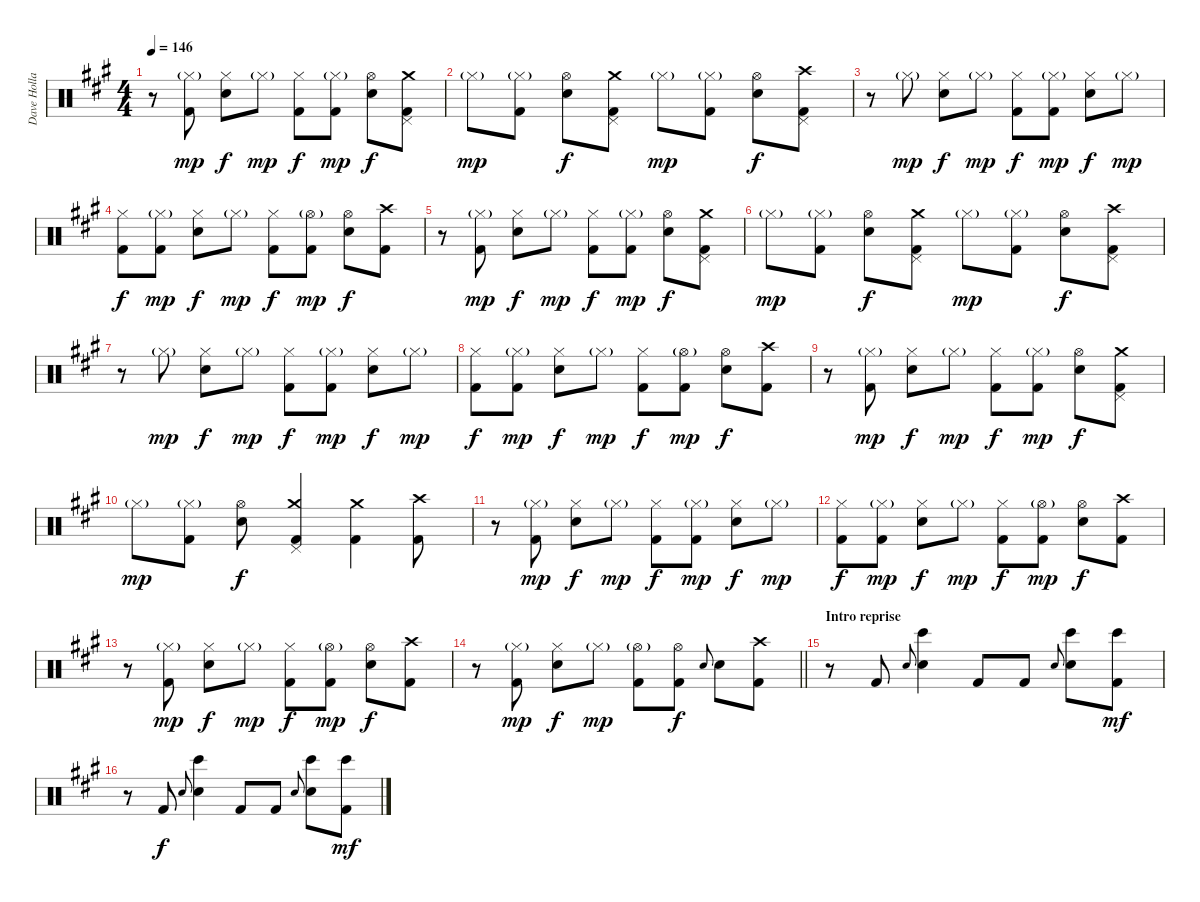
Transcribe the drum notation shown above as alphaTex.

\track ("Dave Holland" "Dave Holla") {instrument percussion}
\staff {score}
\articulation defaults
\ts (4 4)
\tempo 146
\clef neutral
\ks a
r.8{dy f} ("Hi-Hat (closed)"{g} "Kick (hit) 2").8{dy mp} ("Hi-Hat (closed)" "Electric Snare (hit)").8{dy f} "Hi-Hat (closed)"{g}.8{dy mp} ("Hi-Hat (closed)" "Kick (hit) 2").8{dy f} ("Hi-Hat (closed)"{g} "Kick (hit) 2").8{dy mp} ("Hi-Hat (open)" "Electric Snare (hit)").8{dy f} ("Crash medium (hit)" "Pedal Hi-Hat (hit)" "Kick (hit) 2").8 |
"Hi-Hat (closed)"{g}.8{dy mp} ("Hi-Hat (closed)"{g} "Kick (hit) 2").8 ("Hi-Hat (open)" "Electric Snare (hit)").8{dy f} ("Crash medium (hit)" "Pedal Hi-Hat (hit)" "Kick (hit) 2").8 "Hi-Hat (closed)"{g}.8{dy mp} ("Hi-Hat (closed)"{g} "Kick (hit) 2").8 ("Hi-Hat (open)" "Electric Snare (hit)").8{dy f} ("Crash high (hit)" "Pedal Hi-Hat (hit)" "Kick (hit) 2").8 |
r.8 "Hi-Hat (closed)"{g}.8{dy mp} ("Hi-Hat (closed)" "Electric Snare (hit)").8{dy f} "Hi-Hat (closed)"{g}.8{dy mp} ("Hi-Hat (closed)" "Kick (hit) 2").8{dy f} ("Hi-Hat (closed)"{g} "Kick (hit) 2").8{dy mp} ("Hi-Hat (closed)" "Electric Snare (hit)").8{dy f} "Hi-Hat (closed)"{g}.8{dy mp} |
("Hi-Hat (closed)" "Kick (hit) 2").8{dy f} ("Hi-Hat (closed)"{g} "Kick (hit) 2").8{dy mp} ("Hi-Hat (closed)" "Electric Snare (hit)").8{dy f} "Hi-Hat (closed)"{g}.8{dy mp} ("Hi-Hat (closed)" "Kick (hit) 2").8{dy f} ("Hi-Hat (open)"{g} "Kick (hit) 2").8{dy mp} ("Hi-Hat (open)" "Electric Snare (hit)").8{dy f} ("Crash high (hit)" "Kick (hit) 2").8 |
r.8 ("Hi-Hat (closed)"{g} "Kick (hit) 2").8{dy mp} ("Hi-Hat (closed)" "Electric Snare (hit)").8{dy f} "Hi-Hat (closed)"{g}.8{dy mp} ("Hi-Hat (closed)" "Kick (hit) 2").8{dy f} ("Hi-Hat (closed)"{g} "Kick (hit) 2").8{dy mp} ("Hi-Hat (open)" "Electric Snare (hit)").8{dy f} ("Crash medium (hit)" "Pedal Hi-Hat (hit)" "Kick (hit) 2").8 |
"Hi-Hat (closed)"{g}.8{dy mp} ("Hi-Hat (closed)"{g} "Kick (hit) 2").8 ("Hi-Hat (open)" "Electric Snare (hit)").8{dy f} ("Crash medium (hit)" "Pedal Hi-Hat (hit)" "Kick (hit) 2").8 "Hi-Hat (closed)"{g}.8{dy mp} ("Hi-Hat (closed)"{g} "Kick (hit) 2").8 ("Hi-Hat (open)" "Electric Snare (hit)").8{dy f} ("Crash high (hit)" "Pedal Hi-Hat (hit)" "Kick (hit) 2").8 |
r.8 "Hi-Hat (closed)"{g}.8{dy mp} ("Hi-Hat (closed)" "Electric Snare (hit)").8{dy f} "Hi-Hat (closed)"{g}.8{dy mp} ("Hi-Hat (closed)" "Kick (hit) 2").8{dy f} ("Hi-Hat (closed)"{g} "Kick (hit) 2").8{dy mp} ("Hi-Hat (closed)" "Electric Snare (hit)").8{dy f} "Hi-Hat (closed)"{g}.8{dy mp} |
("Hi-Hat (closed)" "Kick (hit) 2").8{dy f} ("Hi-Hat (closed)"{g} "Kick (hit) 2").8{dy mp} ("Hi-Hat (closed)" "Electric Snare (hit)").8{dy f} "Hi-Hat (closed)"{g}.8{dy mp} ("Hi-Hat (closed)" "Kick (hit) 2").8{dy f} ("Hi-Hat (open)"{g} "Kick (hit) 2").8{dy mp} ("Hi-Hat (open)" "Electric Snare (hit)").8{dy f} ("Crash high (hit)" "Kick (hit) 2").8 |
r.8 ("Hi-Hat (closed)"{g} "Kick (hit) 2").8{dy mp} ("Hi-Hat (closed)" "Electric Snare (hit)").8{dy f} "Hi-Hat (closed)"{g}.8{dy mp} ("Hi-Hat (closed)" "Kick (hit) 2").8{dy f} ("Hi-Hat (closed)"{g} "Kick (hit) 2").8{dy mp} ("Hi-Hat (open)" "Electric Snare (hit)").8{dy f} ("Crash medium (hit)" "Pedal Hi-Hat (hit)" "Kick (hit) 2").8 |
"Hi-Hat (closed)"{g}.8{dy mp} ("Hi-Hat (closed)"{g} "Kick (hit) 2").8 ("Hi-Hat (open)" "Electric Snare (hit)").8{dy f} ("Crash medium (hit)" "Pedal Hi-Hat (hit)" "Kick (hit) 2").4 ("Crash medium (hit)" "Kick (hit) 2").4 ("Crash high (hit)" "Kick (hit) 2").8 |
r.8 ("Hi-Hat (closed)"{g} "Kick (hit) 2").8{dy mp} ("Hi-Hat (closed)" "Electric Snare (hit)").8{dy f} "Hi-Hat (closed)"{g}.8{dy mp} ("Hi-Hat (closed)" "Kick (hit) 2").8{dy f} ("Hi-Hat (closed)"{g} "Kick (hit) 2").8{dy mp} ("Hi-Hat (closed)" "Electric Snare (hit)").8{dy f} "Hi-Hat (closed)"{g}.8{dy mp} |
("Hi-Hat (closed)" "Kick (hit) 2").8{dy f} ("Hi-Hat (closed)"{g} "Kick (hit) 2").8{dy mp} ("Hi-Hat (closed)" "Electric Snare (hit)").8{dy f} "Hi-Hat (closed)"{g}.8{dy mp} ("Hi-Hat (closed)" "Kick (hit) 2").8{dy f} ("Hi-Hat (open)"{g} "Kick (hit) 2").8{dy mp} ("Hi-Hat (open)" "Electric Snare (hit)").8{dy f} ("Crash high (hit)" "Kick (hit) 2").8 |
r.8 ("Hi-Hat (closed)"{g} "Kick (hit) 2").8{dy mp} ("Hi-Hat (closed)" "Electric Snare (hit)").8{dy f} "Hi-Hat (closed)"{g}.8{dy mp} ("Hi-Hat (closed)" "Kick (hit) 2").8{dy f} ("Hi-Hat (open)"{g} "Kick (hit) 2").8{dy mp} ("Hi-Hat (open)" "Electric Snare (hit)").8{dy f} ("Crash high (hit)" "Kick (hit) 2").8 |
\barLineRight lightlight
r.8 ("Hi-Hat (closed)"{g} "Kick (hit) 2").8{dy mp} ("Hi-Hat (closed)" "Electric Snare (hit)").8{dy f} "Hi-Hat (closed)"{g}.8{dy mp} ("Hi-Hat (open)"{g} "Kick (hit) 2").8 ("Hi-Hat (open)" "Kick (hit) 2").8{dy f} "Electric Snare (hit)".8{gr onbeat} "Electric Snare (hit)".8 ("Crash high (hit)" "Kick (hit) 2").8 |
\section ("" "Intro reprise")
r.8 "Kick (hit) 2".8 "Electric Snare (hit)".8{gr onbeat} ("Bongo High (hit)" "Electric Snare (hit)").4 "Kick (hit) 2".8 "Kick (hit) 2".8 "Electric Snare (hit)".8{gr onbeat} ("Bongo High (hit)" "Electric Snare (hit)").8 ("Bongo High (hit)" "Kick (hit) 2").8{dy mf} |
r.8 "Kick (hit) 2".8{dy f} "Electric Snare (hit)".8{gr onbeat} ("Bongo High (hit)" "Electric Snare (hit)").4 "Kick (hit) 2".8 "Kick (hit) 2".8 "Electric Snare (hit)".8{gr onbeat} ("Bongo High (hit)" "Electric Snare (hit)").8 ("Bongo High (hit)" "Kick (hit) 2").8{dy mf}
